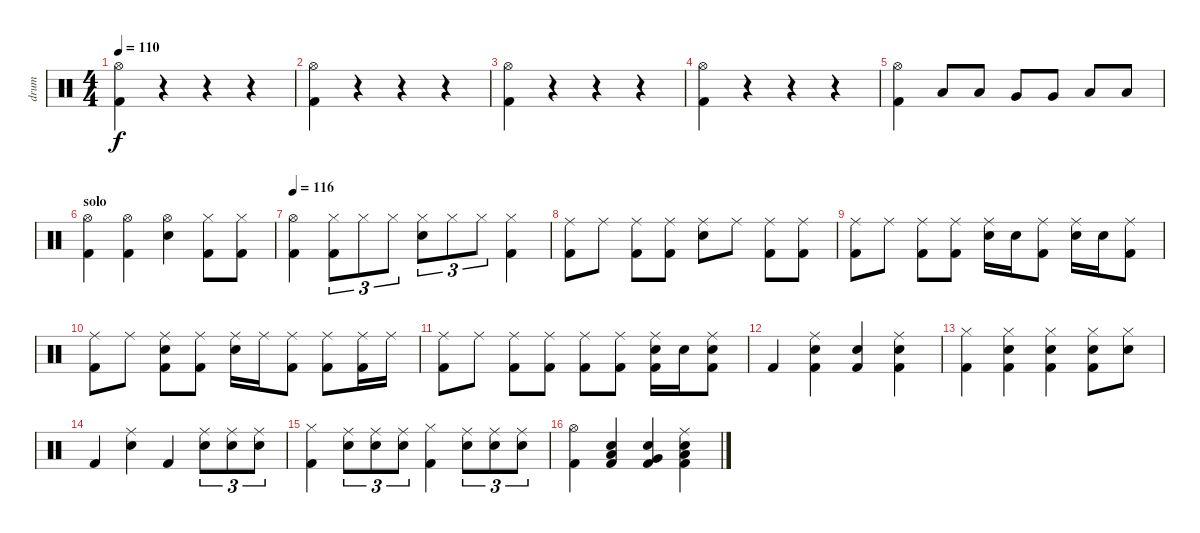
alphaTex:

\track ("drum" "drum") {instrument percussion}
\staff {score}
\articulation defaults
\ts (4 4)
\tempo 110
\clef neutral
\ks c
("Hi-Hat (open)" "Kick (hit) 2").4{dy f} r.4 r.4 r.4 |
("Hi-Hat (open)" "Kick (hit) 2").4 r.4 r.4 r.4 |
("Hi-Hat (open)" "Kick (hit) 2").4 r.4 r.4 r.4 |
("Hi-Hat (open)" "Kick (hit) 2").4 r.4 r.4 r.4 |
("Hi-Hat (open)" "Kick (hit) 2").4 "Low Tom (hit)".8 "Low Tom (hit)".8 "Very Low Tom (hit)".8 "Very Low Tom (hit)".8 "Low Tom (hit)".8 "Low Tom (hit)".8 |
\section ("" "solo")
("Hi-Hat (open)" "Kick (hit) 2").4 ("Hi-Hat (open)" "Kick (hit) 2").4 ("Hi-Hat (open)" "Electric Snare (hit)").4 ("Hi-Hat (closed)" "Kick (hit) 2").8 ("Hi-Hat (closed)" "Kick (hit) 2").8 |
\tempo 116
("Hi-Hat (open)" "Kick (hit) 2").4 ("Hi-Hat (closed)" "Kick (hit) 2").8{tu (3 2)} "Hi-Hat (closed)".8{tu (3 2)} "Hi-Hat (closed)".8{tu (3 2)} ("Hi-Hat (closed)" "Electric Snare (hit)").8{tu (3 2)} "Hi-Hat (closed)".8{tu (3 2)} "Hi-Hat (closed)".8{tu (3 2)} ("Hi-Hat (closed)" "Kick (hit) 2").4 |
("Ride (middle)" "Kick (hit) 2").8 "Ride (middle)".8 ("Ride (middle)" "Kick (hit) 2").8 ("Ride (middle)" "Kick (hit) 2").8 ("Ride (middle)" "Electric Snare (hit)").8 "Ride (middle)".8 ("Ride (middle)" "Kick (hit) 2").8 ("Ride (middle)" "Kick (hit) 2").8 |
("Ride (middle)" "Kick (hit) 2").8 "Ride (middle)".8 ("Ride (middle)" "Kick (hit) 2").8 ("Ride (middle)" "Kick (hit) 2").8 ("Ride (middle)" "Electric Snare (hit)").16 "Electric Snare (hit)".16 ("Ride (middle)" "Kick (hit) 2").8 ("Ride (middle)" "Electric Snare (hit)").16 "Electric Snare (hit)".16 ("Ride (middle)" "Kick (hit) 2").8 |
("Ride (middle)" "Kick (hit) 2").8 "Ride (middle)".8 ("Ride (middle)" "Electric Snare (hit)" "Kick (hit) 2").8 ("Ride (middle)" "Kick (hit) 2").8 ("Ride (middle)" "Electric Snare (hit)").16 "Ride (middle)".16 ("Ride (middle)" "Kick (hit) 2").8 ("Ride (middle)" "Kick (hit) 2").8 ("Ride (middle)" "Kick (hit) 2").16 "Ride (middle)".16 |
("Ride (middle)" "Kick (hit) 2").8 "Ride (middle)".8 ("Ride (middle)" "Kick (hit) 2").8 ("Ride (middle)" "Kick (hit) 2").8 ("Ride (middle)" "Kick (hit) 2").8 ("Ride (middle)" "Kick (hit) 2").8 ("Ride (middle)" "Electric Snare (hit)" "Kick (hit) 2").16 "Electric Snare (hit)".16 ("Ride (middle)" "Electric Snare (hit)" "Kick (hit) 2").8 |
"Kick (hit) 2".4 ("Ride (middle)" "Electric Snare (hit)" "Kick (hit) 2").4 ("Electric Snare (hit)" "Kick (hit) 2").4 ("Ride (middle)" "Electric Snare (hit)" "Kick (hit) 2").4 |
("Hi-Hat (closed)" "Kick (hit) 2").4 ("Hi-Hat (closed)" "Electric Snare (hit)" "Kick (hit) 2").4 ("Hi-Hat (closed)" "Electric Snare (hit)" "Kick (hit) 2").4 ("Hi-Hat (closed)" "Electric Snare (hit)" "Kick (hit) 2").8 ("Hi-Hat (closed)" "Electric Snare (hit)").8 |
"Kick (hit) 2".4 ("Ride (middle)" "Electric Snare (hit)").4 "Kick (hit) 2".4 ("Ride (middle)" "Electric Snare (hit)").8{tu (3 2)} ("Ride (middle)" "Electric Snare (hit)").8{tu (3 2)} ("Ride (middle)" "Electric Snare (hit)").8{tu (3 2)} |
("Hi-Hat (closed)" "Kick (hit) 2").4 ("Ride (middle)" "Electric Snare (hit)").8{tu (3 2)} ("Ride (middle)" "Electric Snare (hit)").8{tu (3 2)} ("Ride (middle)" "Electric Snare (hit)").8{tu (3 2)} ("Hi-Hat (closed)" "Kick (hit) 2").4 ("Ride (middle)" "Electric Snare (hit)").8{tu (3 2)} ("Ride (middle)" "Electric Snare (hit)").8{tu (3 2)} ("Ride (middle)" "Electric Snare (hit)").8{tu (3 2)} |
("Hi-Hat (open)" "Kick (hit) 2").4 ("Low Floor Tom (hit)" "Electric Snare (hit)" "Kick (hit) 2").4 ("Very Low Tom (hit)" "Electric Snare (hit)" "Kick (hit) 2").4 ("Ride (middle)" "Low Tom (hit)" "Electric Snare (hit)" "Kick (hit) 2").4
